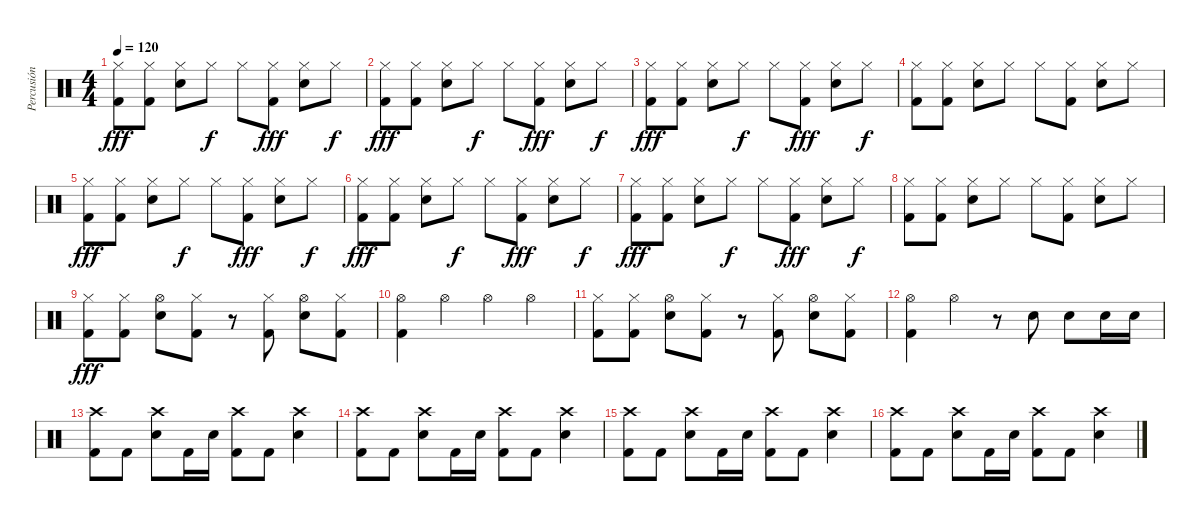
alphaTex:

\track ("Percusión" "Percusión") {instrument percussion}
\staff {score}
\articulation defaults
\ts (4 4)
\tempo 120
\clef neutral
\ks c
("Hi-Hat (closed)" "Kick (hit) 2").8{dy fff} ("Hi-Hat (closed)" "Kick (hit) 2").8 ("Hi-Hat (closed)" "Snare (hit) 2").8 "Hi-Hat (closed)".8{dy f} "Hi-Hat (closed)".8 ("Hi-Hat (closed)" "Kick (hit) 2").8{dy fff} ("Hi-Hat (closed)" "Snare (hit) 2").8 "Hi-Hat (closed)".8{dy f} |
("Hi-Hat (closed)" "Kick (hit) 2").8{dy fff} ("Hi-Hat (closed)" "Kick (hit) 2").8 ("Hi-Hat (closed)" "Snare (hit) 2").8 "Hi-Hat (closed)".8{dy f} "Hi-Hat (closed)".8 ("Hi-Hat (closed)" "Kick (hit) 2").8{dy fff} ("Hi-Hat (closed)" "Snare (hit) 2").8 "Hi-Hat (closed)".8{dy f} |
("Hi-Hat (closed)" "Kick (hit) 2").8{dy fff} ("Hi-Hat (closed)" "Kick (hit) 2").8 ("Hi-Hat (closed)" "Snare (hit) 2").8 "Hi-Hat (closed)".8{dy f} "Hi-Hat (closed)".8 ("Hi-Hat (closed)" "Kick (hit) 2").8{dy fff} ("Hi-Hat (closed)" "Snare (hit) 2").8 "Hi-Hat (closed)".8{dy f} |
("Hi-Hat (closed)" "Kick (hit) 2").8 ("Hi-Hat (closed)" "Kick (hit) 2").8 ("Hi-Hat (closed)" "Snare (hit) 2").8 "Hi-Hat (closed)".8 "Hi-Hat (closed)".8 ("Hi-Hat (closed)" "Kick (hit) 2").8 ("Hi-Hat (closed)" "Snare (hit) 2").8 "Hi-Hat (closed)".8 |
("Hi-Hat (closed)" "Kick (hit) 2").8{dy fff} ("Hi-Hat (closed)" "Kick (hit) 2").8 ("Hi-Hat (closed)" "Snare (hit) 2").8 "Hi-Hat (closed)".8{dy f} "Hi-Hat (closed)".8 ("Hi-Hat (closed)" "Kick (hit) 2").8{dy fff} ("Hi-Hat (closed)" "Snare (hit) 2").8 "Hi-Hat (closed)".8{dy f} |
("Hi-Hat (closed)" "Kick (hit) 2").8{dy fff} ("Hi-Hat (closed)" "Kick (hit) 2").8 ("Hi-Hat (closed)" "Snare (hit) 2").8 "Hi-Hat (closed)".8{dy f} "Hi-Hat (closed)".8 ("Hi-Hat (closed)" "Kick (hit) 2").8{dy fff} ("Hi-Hat (closed)" "Snare (hit) 2").8 "Hi-Hat (closed)".8{dy f} |
("Hi-Hat (closed)" "Kick (hit) 2").8{dy fff} ("Hi-Hat (closed)" "Kick (hit) 2").8 ("Hi-Hat (closed)" "Snare (hit) 2").8 "Hi-Hat (closed)".8{dy f} "Hi-Hat (closed)".8 ("Hi-Hat (closed)" "Kick (hit) 2").8{dy fff} ("Hi-Hat (closed)" "Snare (hit) 2").8 "Hi-Hat (closed)".8{dy f} |
("Hi-Hat (closed)" "Kick (hit) 2").8 ("Hi-Hat (closed)" "Kick (hit) 2").8 ("Hi-Hat (closed)" "Snare (hit) 2").8 "Hi-Hat (closed)".8 "Hi-Hat (closed)".8 ("Hi-Hat (closed)" "Kick (hit) 2").8 ("Hi-Hat (closed)" "Snare (hit) 2").8 "Hi-Hat (closed)".8 |
("Hi-Hat (closed)" "Kick (hit) 2").8{dy fff} ("Hi-Hat (closed)" "Kick (hit) 2").8 ("Hi-Hat (open)" "Snare (hit) 2").8 ("Hi-Hat (closed)" "Kick (hit) 2").8 r.8 ("Hi-Hat (closed)" "Kick (hit) 2").8 ("Hi-Hat (open)" "Snare (hit) 2").8 ("Hi-Hat (closed)" "Kick (hit) 2").8 |
("Hi-Hat (open)" "Kick (hit) 2").4 "Hi-Hat (open)".4 "Hi-Hat (open)".4 "Hi-Hat (open)".4 |
("Hi-Hat (closed)" "Kick (hit) 2").8 ("Hi-Hat (closed)" "Kick (hit) 2").8 ("Hi-Hat (open)" "Snare (hit) 2").8 ("Hi-Hat (closed)" "Kick (hit) 2").8 r.8 ("Hi-Hat (closed)" "Kick (hit) 2").8 ("Hi-Hat (open)" "Snare (hit) 2").8 ("Hi-Hat (closed)" "Kick (hit) 2").8 |
("Hi-Hat (open)" "Kick (hit) 2").4 "Hi-Hat (open)".4 r.8 "Snare (hit) 2".8 "Snare (hit) 2".8 "Snare (hit) 2".16 "Snare (hit) 2".16 |
("Crash high (hit)" "Kick (hit) 2").8 "Kick (hit) 2".8 ("Crash high (hit)" "Snare (hit) 2").8 "Kick (hit) 2".16 "Snare (hit) 2".16 ("Crash high (hit)" "Kick (hit) 2").8 "Kick (hit) 2".8 ("Crash high (hit)" "Snare (hit) 2").4 |
("Crash high (hit)" "Kick (hit) 2").8 "Kick (hit) 2".8 ("Crash high (hit)" "Snare (hit) 2").8 "Kick (hit) 2".16 "Snare (hit) 2".16 ("Crash high (hit)" "Kick (hit) 2").8 "Kick (hit) 2".8 ("Crash high (hit)" "Snare (hit) 2").4 |
("Crash high (hit)" "Kick (hit) 2").8 "Kick (hit) 2".8 ("Crash high (hit)" "Snare (hit) 2").8 "Kick (hit) 2".16 "Snare (hit) 2".16 ("Crash high (hit)" "Kick (hit) 2").8 "Kick (hit) 2".8 ("Crash high (hit)" "Snare (hit) 2").4 |
("Crash high (hit)" "Kick (hit) 2").8 "Kick (hit) 2".8 ("Crash high (hit)" "Snare (hit) 2").8 "Kick (hit) 2".16 "Snare (hit) 2".16 ("Crash high (hit)" "Kick (hit) 2").8 "Kick (hit) 2".8 ("Crash high (hit)" "Snare (hit) 2").4
